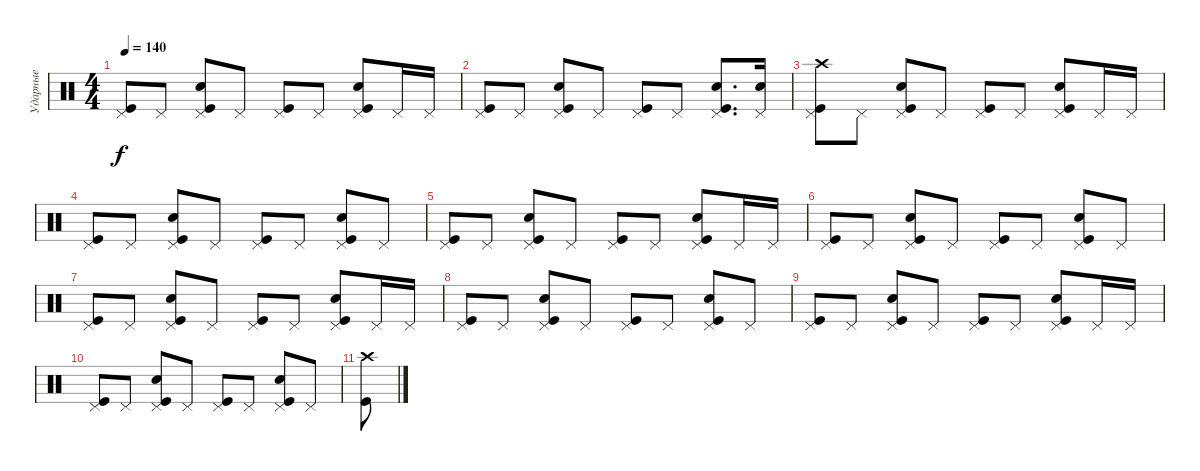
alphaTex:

\track ("Ударные" "Ударные") {instrument percussion}
\staff {score}
\articulation defaults
\ts (4 4)
\tempo 140
\clef neutral
\ks c
("Pedal Hi-Hat (hit)" "Kick (hit)").8{dy f} "Pedal Hi-Hat (hit)".8 ("Pedal Hi-Hat (hit)" "Kick (hit)" "Snare (hit) 2").8 "Pedal Hi-Hat (hit)".8 ("Pedal Hi-Hat (hit)" "Kick (hit)").8 "Pedal Hi-Hat (hit)".8 ("Pedal Hi-Hat (hit)" "Kick (hit)" "Snare (hit) 2").8 "Pedal Hi-Hat (hit)".16 "Pedal Hi-Hat (hit)".16 |
("Pedal Hi-Hat (hit)" "Kick (hit)").8 "Pedal Hi-Hat (hit)".8 ("Pedal Hi-Hat (hit)" "Kick (hit)" "Snare (hit) 2").8 "Pedal Hi-Hat (hit)".8 ("Pedal Hi-Hat (hit)" "Kick (hit)").8 "Pedal Hi-Hat (hit)".8 ("Pedal Hi-Hat (hit)" "Kick (hit)" "Snare (hit) 2").8{d} ("Pedal Hi-Hat (hit)" "Snare (hit) 2").16 |
("Pedal Hi-Hat (hit)" "Kick (hit)" "Crash high (hit)").8 "Pedal Hi-Hat (hit)".8 ("Pedal Hi-Hat (hit)" "Kick (hit)" "Snare (hit) 2").8 "Pedal Hi-Hat (hit)".8 ("Pedal Hi-Hat (hit)" "Kick (hit)").8 "Pedal Hi-Hat (hit)".8 ("Pedal Hi-Hat (hit)" "Kick (hit)" "Snare (hit) 2").8 "Pedal Hi-Hat (hit)".16 "Pedal Hi-Hat (hit)".16 |
("Pedal Hi-Hat (hit)" "Kick (hit)").8 "Pedal Hi-Hat (hit)".8 ("Pedal Hi-Hat (hit)" "Kick (hit)" "Snare (hit) 2").8 "Pedal Hi-Hat (hit)".8 ("Pedal Hi-Hat (hit)" "Kick (hit)").8 "Pedal Hi-Hat (hit)".8 ("Pedal Hi-Hat (hit)" "Kick (hit)" "Snare (hit) 2").8 "Pedal Hi-Hat (hit)".8 |
("Pedal Hi-Hat (hit)" "Kick (hit)").8 "Pedal Hi-Hat (hit)".8 ("Pedal Hi-Hat (hit)" "Kick (hit)" "Snare (hit) 2").8 "Pedal Hi-Hat (hit)".8 ("Pedal Hi-Hat (hit)" "Kick (hit)").8 "Pedal Hi-Hat (hit)".8 ("Pedal Hi-Hat (hit)" "Kick (hit)" "Snare (hit) 2").8 "Pedal Hi-Hat (hit)".16 "Pedal Hi-Hat (hit)".16 |
("Pedal Hi-Hat (hit)" "Kick (hit)").8 "Pedal Hi-Hat (hit)".8 ("Pedal Hi-Hat (hit)" "Kick (hit)" "Snare (hit) 2").8 "Pedal Hi-Hat (hit)".8 ("Pedal Hi-Hat (hit)" "Kick (hit)").8 "Pedal Hi-Hat (hit)".8 ("Pedal Hi-Hat (hit)" "Kick (hit)" "Snare (hit) 2").8 "Pedal Hi-Hat (hit)".8 |
("Pedal Hi-Hat (hit)" "Kick (hit)").8 "Pedal Hi-Hat (hit)".8 ("Pedal Hi-Hat (hit)" "Kick (hit)" "Snare (hit) 2").8 "Pedal Hi-Hat (hit)".8 ("Pedal Hi-Hat (hit)" "Kick (hit)").8 "Pedal Hi-Hat (hit)".8 ("Pedal Hi-Hat (hit)" "Kick (hit)" "Snare (hit) 2").8 "Pedal Hi-Hat (hit)".16 "Pedal Hi-Hat (hit)".16 |
("Pedal Hi-Hat (hit)" "Kick (hit)").8 "Pedal Hi-Hat (hit)".8 ("Pedal Hi-Hat (hit)" "Kick (hit)" "Snare (hit) 2").8 "Pedal Hi-Hat (hit)".8 ("Pedal Hi-Hat (hit)" "Kick (hit)").8 "Pedal Hi-Hat (hit)".8 ("Pedal Hi-Hat (hit)" "Kick (hit)" "Snare (hit) 2").8 "Pedal Hi-Hat (hit)".8 |
("Pedal Hi-Hat (hit)" "Kick (hit)").8 "Pedal Hi-Hat (hit)".8 ("Pedal Hi-Hat (hit)" "Kick (hit)" "Snare (hit) 2").8 "Pedal Hi-Hat (hit)".8 ("Pedal Hi-Hat (hit)" "Kick (hit)").8 "Pedal Hi-Hat (hit)".8 ("Pedal Hi-Hat (hit)" "Kick (hit)" "Snare (hit) 2").8 "Pedal Hi-Hat (hit)".16 "Pedal Hi-Hat (hit)".16 |
("Pedal Hi-Hat (hit)" "Kick (hit)").8 "Pedal Hi-Hat (hit)".8 ("Pedal Hi-Hat (hit)" "Kick (hit)" "Snare (hit) 2").8 "Pedal Hi-Hat (hit)".8 ("Pedal Hi-Hat (hit)" "Kick (hit)").8 "Pedal Hi-Hat (hit)".8 ("Pedal Hi-Hat (hit)" "Kick (hit)" "Snare (hit) 2").8 "Pedal Hi-Hat (hit)".8 |
("Kick (hit)" "Crash high (hit)").8
